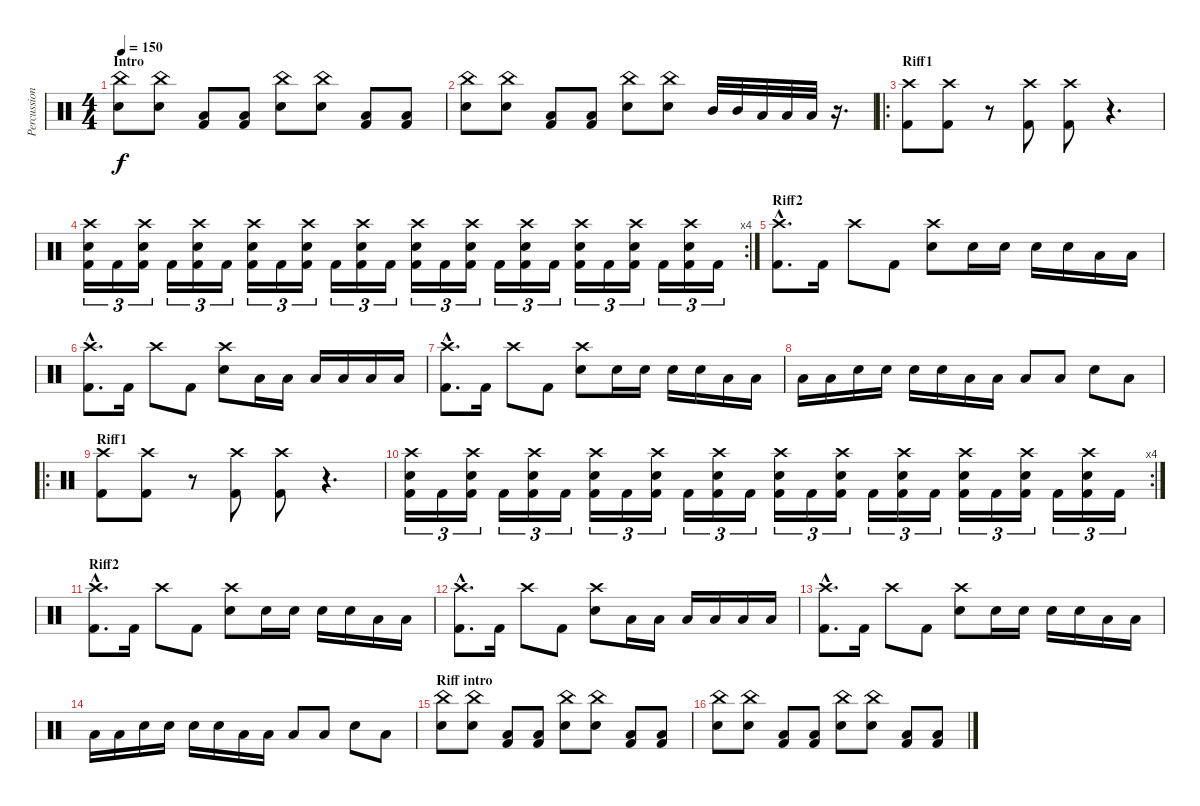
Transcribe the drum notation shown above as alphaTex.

\track ("Percussions" "Percussion") {instrument percussion}
\staff {score}
\articulation defaults
\ts (4 4)
\section ("" "Intro")
\tempo 150
\clef neutral
\ks c
("China (hit)" "Electric Snare (hit)").8{dy f} ("China (hit)" "Electric Snare (hit)").8 ("Low Tom (hit)" "Kick (hit) 2").8 ("Low Floor Tom (hit)" "Kick (hit) 2").8 ("China (hit)" "Electric Snare (hit)").8 ("China (hit)" "Electric Snare (hit)").8 ("Low Tom (hit)" "Kick (hit) 2").8 ("Low Floor Tom (hit)" "Kick (hit) 2").8 |
("China (hit)" "Electric Snare (hit)").8 ("China (hit)" "Electric Snare (hit)").8 ("Low Tom (hit)" "Kick (hit) 2").8 ("Low Floor Tom (hit)" "Kick (hit) 2").8 ("China (hit)" "Electric Snare (hit)").8 ("China (hit)" "Electric Snare (hit)").8 "Mid Tom (hit)".32 "Mid Tom (hit)".32 "Low Tom (hit)".32 "Low Floor Tom (hit)".32 "Low Floor Tom (hit)".32 r.16{d} |
\ro
\section ("" "Riff1")
("Crash high (hit)" "Kick (hit) 2").8 ("Crash high (hit)" "Kick (hit) 2").8 r.8 ("Crash high (hit)" "Kick (hit) 2").8 ("Crash high (hit)" "Kick (hit) 2").8 r.4{d} |
\rc 4
("Crash high (hit)" "Electric Snare (hit)" "Kick (hit) 2").16{tu (3 2)} "Kick (hit) 2".16{tu (3 2)} ("Crash high (hit)" "Electric Snare (hit)" "Kick (hit) 2").16{tu (3 2)} "Kick (hit) 2".16{tu (3 2)} ("Crash high (hit)" "Electric Snare (hit)" "Kick (hit) 2").16{tu (3 2)} "Kick (hit) 2".16{tu (3 2)} ("Crash high (hit)" "Electric Snare (hit)" "Kick (hit) 2").16{tu (3 2)} "Kick (hit) 2".16{tu (3 2)} ("Crash high (hit)" "Electric Snare (hit)" "Kick (hit) 2").16{tu (3 2)} "Kick (hit) 2".16{tu (3 2)} ("Crash high (hit)" "Electric Snare (hit)" "Kick (hit) 2").16{tu (3 2)} "Kick (hit) 2".16{tu (3 2)} ("Crash high (hit)" "Electric Snare (hit)" "Kick (hit) 2").16{tu (3 2)} "Kick (hit) 2".16{tu (3 2)} ("Crash high (hit)" "Electric Snare (hit)" "Kick (hit) 2").16{tu (3 2)} "Kick (hit) 2".16{tu (3 2)} ("Crash high (hit)" "Electric Snare (hit)" "Kick (hit) 2").16{tu (3 2)} "Kick (hit) 2".16{tu (3 2)} ("Crash high (hit)" "Electric Snare (hit)" "Kick (hit) 2").16{tu (3 2)} "Kick (hit) 2".16{tu (3 2)} ("Crash high (hit)" "Electric Snare (hit)" "Kick (hit) 2").16{tu (3 2)} "Kick (hit) 2".16{tu (3 2)} ("Crash high (hit)" "Electric Snare (hit)" "Kick (hit) 2").16{tu (3 2)} "Kick (hit) 2".16{tu (3 2)} |
\section ("" "Riff2")
("Crash high (hit)"{hac} "Kick (hit) 2"{hac}).8{d} "Kick (hit) 2".16 "Crash high (hit)".8 "Kick (hit) 2".8 ("Crash high (hit)" "Electric Snare (hit)").8 "Electric Snare (hit)".16 "Electric Snare (hit)".16 "Electric Snare (hit)".16 "Electric Snare (hit)".16 "Low Tom (hit)".16 "Low Floor Tom (hit)".16 |
("Crash high (hit)"{hac} "Kick (hit) 2"{hac}).8{d} "Kick (hit) 2".16 "Crash high (hit)".8 "Kick (hit) 2".8 ("Crash high (hit)" "Electric Snare (hit)").8 "Low Tom (hit)".16 "Low Tom (hit)".16 "Low Tom (hit)".16 "Low Tom (hit)".16 "Low Tom (hit)".16 "Low Floor Tom (hit)".16 |
("Crash high (hit)"{hac} "Kick (hit) 2"{hac}).8{d} "Kick (hit) 2".16 "Crash high (hit)".8 "Kick (hit) 2".8 ("Crash high (hit)" "Electric Snare (hit)").8 "Electric Snare (hit)".16 "Electric Snare (hit)".16 "Electric Snare (hit)".16 "Electric Snare (hit)".16 "Low Tom (hit)".16 "Low Floor Tom (hit)".16 |
"Low Floor Tom (hit)".16 "Low Floor Tom (hit)".16 "Electric Snare (hit)".16 "Electric Snare (hit)".16 "Electric Snare (hit)".16 "Electric Snare (hit)".16 "Low Tom (hit)".16 "Low Floor Tom (hit)".16 "Low Floor Tom (hit)".8 "Low Floor Tom (hit)".8 "Electric Snare (hit)".8 "Low Floor Tom (hit)".8 |
\ro
\section ("" "Riff1")
("Crash high (hit)" "Kick (hit) 2").8 ("Crash high (hit)" "Kick (hit) 2").8 r.8 ("Crash high (hit)" "Kick (hit) 2").8 ("Crash high (hit)" "Kick (hit) 2").8 r.4{d} |
\rc 4
("Crash high (hit)" "Electric Snare (hit)" "Kick (hit) 2").16{tu (3 2)} "Kick (hit) 2".16{tu (3 2)} ("Crash high (hit)" "Electric Snare (hit)" "Kick (hit) 2").16{tu (3 2)} "Kick (hit) 2".16{tu (3 2)} ("Crash high (hit)" "Electric Snare (hit)" "Kick (hit) 2").16{tu (3 2)} "Kick (hit) 2".16{tu (3 2)} ("Crash high (hit)" "Electric Snare (hit)" "Kick (hit) 2").16{tu (3 2)} "Kick (hit) 2".16{tu (3 2)} ("Crash high (hit)" "Electric Snare (hit)" "Kick (hit) 2").16{tu (3 2)} "Kick (hit) 2".16{tu (3 2)} ("Crash high (hit)" "Electric Snare (hit)" "Kick (hit) 2").16{tu (3 2)} "Kick (hit) 2".16{tu (3 2)} ("Crash high (hit)" "Electric Snare (hit)" "Kick (hit) 2").16{tu (3 2)} "Kick (hit) 2".16{tu (3 2)} ("Crash high (hit)" "Electric Snare (hit)" "Kick (hit) 2").16{tu (3 2)} "Kick (hit) 2".16{tu (3 2)} ("Crash high (hit)" "Electric Snare (hit)" "Kick (hit) 2").16{tu (3 2)} "Kick (hit) 2".16{tu (3 2)} ("Crash high (hit)" "Electric Snare (hit)" "Kick (hit) 2").16{tu (3 2)} "Kick (hit) 2".16{tu (3 2)} ("Crash high (hit)" "Electric Snare (hit)" "Kick (hit) 2").16{tu (3 2)} "Kick (hit) 2".16{tu (3 2)} ("Crash high (hit)" "Electric Snare (hit)" "Kick (hit) 2").16{tu (3 2)} "Kick (hit) 2".16{tu (3 2)} |
\section ("" "Riff2")
("Crash high (hit)"{hac} "Kick (hit) 2"{hac}).8{d} "Kick (hit) 2".16 "Crash high (hit)".8 "Kick (hit) 2".8 ("Crash high (hit)" "Electric Snare (hit)").8 "Electric Snare (hit)".16 "Electric Snare (hit)".16 "Electric Snare (hit)".16 "Electric Snare (hit)".16 "Low Tom (hit)".16 "Low Floor Tom (hit)".16 |
("Crash high (hit)"{hac} "Kick (hit) 2"{hac}).8{d} "Kick (hit) 2".16 "Crash high (hit)".8 "Kick (hit) 2".8 ("Crash high (hit)" "Electric Snare (hit)").8 "Low Tom (hit)".16 "Low Tom (hit)".16 "Low Tom (hit)".16 "Low Tom (hit)".16 "Low Tom (hit)".16 "Low Floor Tom (hit)".16 |
("Crash high (hit)"{hac} "Kick (hit) 2"{hac}).8{d} "Kick (hit) 2".16 "Crash high (hit)".8 "Kick (hit) 2".8 ("Crash high (hit)" "Electric Snare (hit)").8 "Electric Snare (hit)".16 "Electric Snare (hit)".16 "Electric Snare (hit)".16 "Electric Snare (hit)".16 "Low Tom (hit)".16 "Low Floor Tom (hit)".16 |
"Low Floor Tom (hit)".16 "Low Floor Tom (hit)".16 "Electric Snare (hit)".16 "Electric Snare (hit)".16 "Electric Snare (hit)".16 "Electric Snare (hit)".16 "Low Tom (hit)".16 "Low Floor Tom (hit)".16 "Low Floor Tom (hit)".8 "Low Floor Tom (hit)".8 "Electric Snare (hit)".8 "Low Floor Tom (hit)".8 |
\section ("" "Riff intro")
("China (hit)" "Electric Snare (hit)").8 ("China (hit)" "Electric Snare (hit)").8 ("Low Tom (hit)" "Kick (hit) 2").8 ("Low Floor Tom (hit)" "Kick (hit) 2").8 ("China (hit)" "Electric Snare (hit)").8 ("China (hit)" "Electric Snare (hit)").8 ("Low Tom (hit)" "Kick (hit) 2").8 ("Low Floor Tom (hit)" "Kick (hit) 2").8 |
("China (hit)" "Electric Snare (hit)").8 ("China (hit)" "Electric Snare (hit)").8 ("Low Tom (hit)" "Kick (hit) 2").8 ("Low Floor Tom (hit)" "Kick (hit) 2").8 ("China (hit)" "Electric Snare (hit)").8 ("China (hit)" "Electric Snare (hit)").8 ("Low Tom (hit)" "Kick (hit) 2").8 ("Low Floor Tom (hit)" "Kick (hit) 2").8
